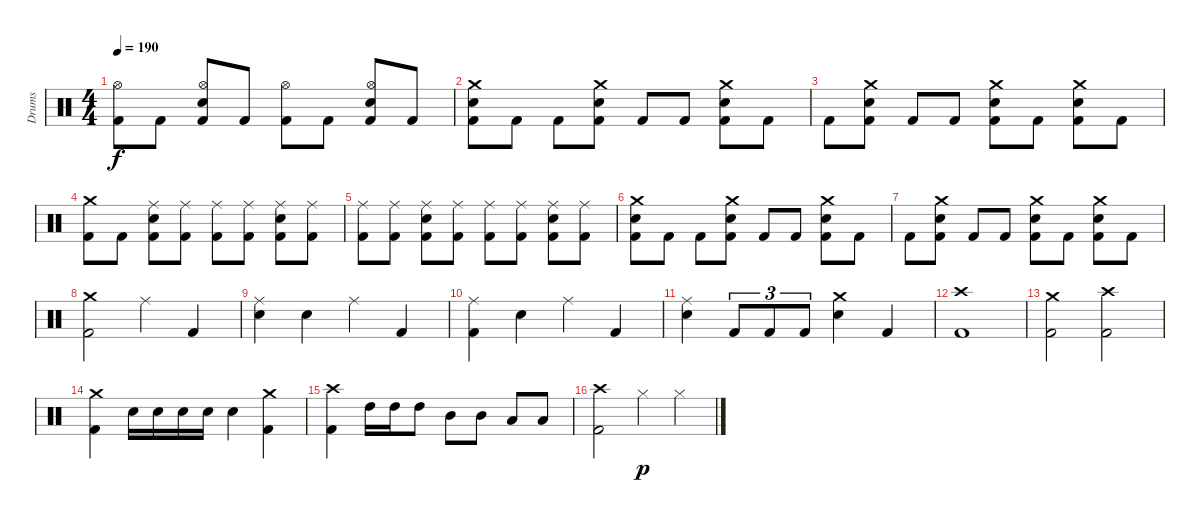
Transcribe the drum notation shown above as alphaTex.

\track ("Drums" "Drums") {instrument percussion}
\staff {score}
\articulation defaults
\ts (4 4)
\tempo 190
\clef neutral
\ks c
("Kick (hit) 2" "Hi-Hat (open)").8{dy f} "Kick (hit) 2".8 ("Kick (hit) 2" "Electric Snare (hit)" "Hi-Hat (open)").8 "Kick (hit) 2".8 ("Kick (hit) 2" "Hi-Hat (open)").8 "Kick (hit) 2".8 ("Kick (hit) 2" "Electric Snare (hit)" "Hi-Hat (open)").8 "Kick (hit) 2".8 |
("Kick (hit) 2" "Electric Snare (hit)" "Crash medium (hit)").8 "Kick (hit) 2".8 "Kick (hit) 2".8 ("Kick (hit) 2" "Electric Snare (hit)" "Crash medium (hit)").8 "Kick (hit) 2".8 "Kick (hit) 2".8 ("Kick (hit) 2" "Electric Snare (hit)" "Crash medium (hit)").8 "Kick (hit) 2".8 |
"Kick (hit) 2".8 ("Kick (hit) 2" "Electric Snare (hit)" "Crash medium (hit)").8 "Kick (hit) 2".8 "Kick (hit) 2".8 ("Kick (hit) 2" "Electric Snare (hit)" "Crash medium (hit)").8 "Kick (hit) 2".8 ("Kick (hit) 2" "Electric Snare (hit)" "Crash medium (hit)").8 "Kick (hit) 2".8 |
("Kick (hit) 2" "Crash medium (hit)").8 "Kick (hit) 2".8 ("Kick (hit) 2" "Electric Snare (hit)" "Ride (middle)").8 ("Kick (hit) 2" "Ride (middle)").8 ("Kick (hit) 2" "Ride (middle)").8 ("Kick (hit) 2" "Ride (middle)").8 ("Kick (hit) 2" "Electric Snare (hit)" "Ride (middle)").8 ("Kick (hit) 2" "Ride (middle)").8 |
("Kick (hit) 2" "Ride (middle)").8 ("Kick (hit) 2" "Ride (middle)").8 ("Kick (hit) 2" "Electric Snare (hit)" "Ride (middle)").8 ("Kick (hit) 2" "Ride (middle)").8 ("Kick (hit) 2" "Ride (middle)").8 ("Kick (hit) 2" "Ride (middle)").8 ("Kick (hit) 2" "Electric Snare (hit)" "Ride (middle)").8 ("Kick (hit) 2" "Ride (middle)").8 |
("Kick (hit) 2" "Electric Snare (hit)" "Crash medium (hit)").8 "Kick (hit) 2".8 "Kick (hit) 2".8 ("Kick (hit) 2" "Electric Snare (hit)" "Crash medium (hit)").8 "Kick (hit) 2".8 "Kick (hit) 2".8 ("Kick (hit) 2" "Electric Snare (hit)" "Crash medium (hit)").8 "Kick (hit) 2".8 |
"Kick (hit) 2".8 ("Kick (hit) 2" "Electric Snare (hit)" "Crash medium (hit)").8 "Kick (hit) 2".8 "Kick (hit) 2".8 ("Kick (hit) 2" "Electric Snare (hit)" "Crash medium (hit)").8 "Kick (hit) 2".8 ("Kick (hit) 2" "Electric Snare (hit)" "Crash medium (hit)").8 "Kick (hit) 2".8 |
("Kick (hit) 2" "Crash medium (hit)").2 "Ride (middle)".4 "Kick (hit) 2".4 |
("Electric Snare (hit)" "Ride (middle)").4 "Electric Snare (hit)".4 "Ride (middle)".4 "Kick (hit) 2".4 |
("Kick (hit) 2" "Ride (middle)").4 "Electric Snare (hit)".4 "Ride (middle)".4 "Kick (hit) 2".4 |
("Electric Snare (hit)" "Ride (middle)").4 "Kick (hit) 2".8{tu (3 2)} "Kick (hit) 2".8{tu (3 2)} "Kick (hit) 2".8{tu (3 2)} ("Electric Snare (hit)" "Crash medium (hit)").4 "Kick (hit) 2".4 |
("Kick (hit) 2" "Crash high (hit)").1 |
("Kick (hit) 2" "Crash medium (hit)").2 ("Kick (hit) 2" "Crash high (hit)").2 |
("Kick (hit) 2" "Crash medium (hit)").4 "Electric Snare (hit)".16 "Electric Snare (hit)".16 "Electric Snare (hit)".16 "Electric Snare (hit)".16 "Electric Snare (hit)".4 ("Kick (hit) 2" "Crash medium (hit)").4 |
("Kick (hit) 2" "Crash high (hit)").4 "High Tom (hit)".16 "High Tom (hit)".16 "High Tom (hit)".8 "Mid Tom (hit)".8 "Mid Tom (hit)".8 "Low Tom (hit)".8 "Low Tom (hit)".8 |
("Kick (hit) 2" "Crash high (hit)").2 "Hi-Hat (closed)".4{dy p} "Hi-Hat (closed)".4
